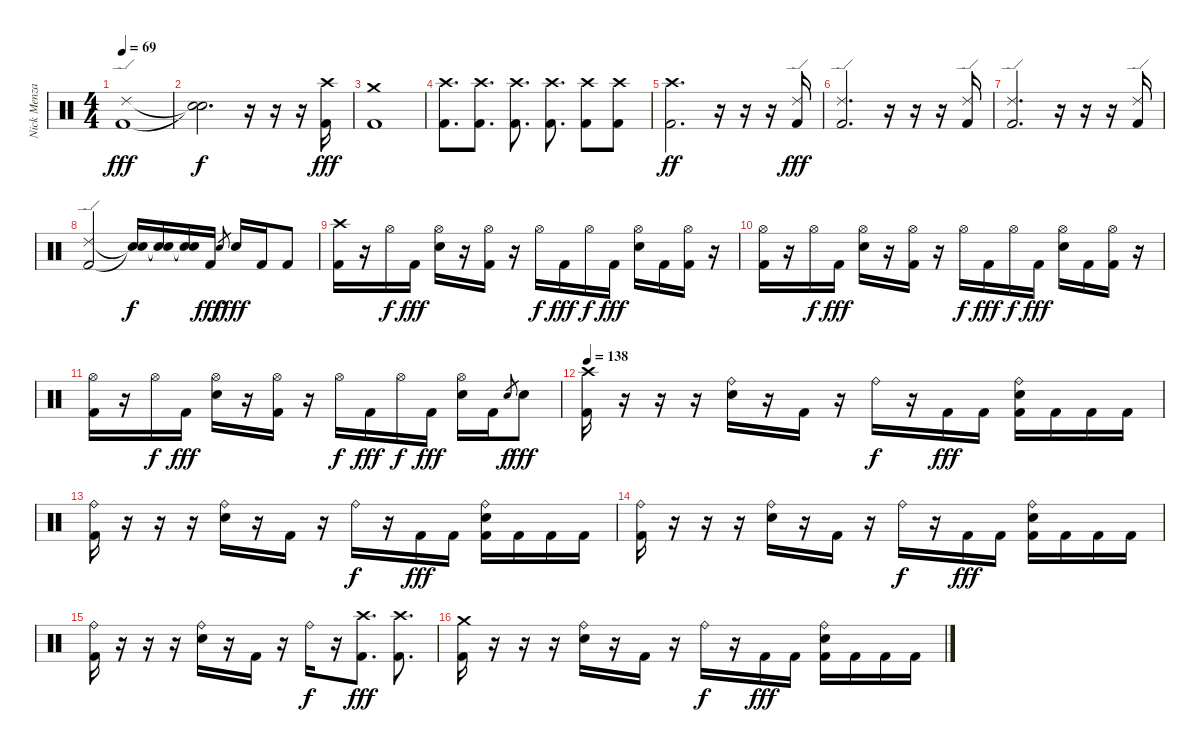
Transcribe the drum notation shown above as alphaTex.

\track ("Nick Menza" "Nick Menza") {instrument percussion}
\staff {score}
\articulation defaults
\ts (4 4)
\tempo 69
\clef neutral
\ks c
("Kick (hit) 2" "Ride (edge) 2").1{dy fff} |
("Snare (hit)"{t} "Snare (hit)"{t}).2{d dy f} r.16 r.16 r.16 ("Kick (hit) 2" "Crash high (hit)").16{dy fff} |
("Kick (hit) 2" "Crash medium (hit)").1 |
("Kick (hit) 2" "Crash high (hit)").8{d} ("Kick (hit) 2" "Crash high (hit)").8{d} ("Kick (hit) 2" "Crash high (hit)").8{d} ("Kick (hit) 2" "Crash high (hit)").8{d} ("Kick (hit) 2" "Crash high (hit)").8 ("Kick (hit) 2" "Crash high (hit)").8 |
("Kick (hit) 2" "Crash high (hit)").2{d dy ff} r.16 r.16 r.16 ("Kick (hit) 2" "Ride (edge) 2").16{dy fff} |
("Kick (hit) 2" "Ride (edge) 2").2{d} r.16 r.16 r.16 ("Kick (hit) 2" "Ride (edge) 2").16 |
("Kick (hit) 2" "Ride (edge) 2").2{d} r.16 r.16 r.16 ("Kick (hit) 2" "Ride (edge) 2").16 |
("Kick (hit) 2" "Ride (edge) 2").2 ("Snare (hit)"{t} "Snare (hit)"{t}).16{dy f} ("Snare (hit)"{t} "Snare (hit)"{t}).16 ("Snare (hit)"{t} "Snare (hit)"{t}).16 "Kick (hit) 2".16{dy fff} "Electric Snare (hit)".8{gr dy f} "Electric Snare (hit)".16{dy fff} "Kick (hit) 2".16 "Kick (hit) 2".8 |
("Kick (hit) 2" "Crash high (hit)").16 r.16 "Hi-Hat (open)".16{dy f} "Kick (hit) 2".16{dy fff} ("Electric Snare (hit)" "Hi-Hat (open)").16 r.16 ("Kick (hit) 2" "Hi-Hat (open)").16 r.16 "Hi-Hat (open)".16{dy f} "Kick (hit) 2".16{dy fff} "Hi-Hat (open)".16{dy f} "Kick (hit) 2".16{dy fff} ("Electric Snare (hit)" "Hi-Hat (open)").16 "Kick (hit) 2".16 ("Kick (hit) 2" "Hi-Hat (open)").16 r.16 |
("Kick (hit) 2" "Hi-Hat (open)").16 r.16 "Hi-Hat (open)".16{dy f} "Kick (hit) 2".16{dy fff} ("Electric Snare (hit)" "Hi-Hat (open)").16 r.16 ("Kick (hit) 2" "Hi-Hat (open)").16 r.16 "Hi-Hat (open)".16{dy f} "Kick (hit) 2".16{dy fff} "Hi-Hat (open)".16{dy f} "Kick (hit) 2".16{dy fff} ("Electric Snare (hit)" "Hi-Hat (open)").16 "Kick (hit) 2".16 ("Kick (hit) 2" "Hi-Hat (open)").16 r.16 |
("Kick (hit) 2" "Hi-Hat (open)").16 r.16 "Hi-Hat (open)".16{dy f} "Kick (hit) 2".16{dy fff} ("Electric Snare (hit)" "Hi-Hat (open)").16 r.16 ("Kick (hit) 2" "Hi-Hat (open)").16 r.16 "Hi-Hat (open)".16{dy f} "Kick (hit) 2".16{dy fff} "Hi-Hat (open)".16{dy f} "Kick (hit) 2".16{dy fff} ("Electric Snare (hit)" "Hi-Hat (open)").16 "Kick (hit) 2".16 "Electric Snare (hit)".8{gr dy f} "Electric Snare (hit)".8{dy fff} |
\tempo 138
("Kick (hit) 2" "Crash high (hit)").16 r.16 r.16 r.16 ("Electric Snare (hit)" "Ride (bell)").16 r.16 "Kick (hit) 2".16 r.16 "Ride (bell)".16{dy f} r.16 "Kick (hit) 2".16{dy fff} "Kick (hit) 2".16 ("Kick (hit) 2" "Electric Snare (hit)" "Ride (bell)").16 "Kick (hit) 2".16 "Kick (hit) 2".16 "Kick (hit) 2".16 |
("Kick (hit) 2" "Ride (bell)").16 r.16 r.16 r.16 ("Electric Snare (hit)" "Ride (bell)").16 r.16 "Kick (hit) 2".16 r.16 "Ride (bell)".16{dy f} r.16 "Kick (hit) 2".16{dy fff} "Kick (hit) 2".16 ("Kick (hit) 2" "Electric Snare (hit)" "Ride (bell)").16 "Kick (hit) 2".16 "Kick (hit) 2".16 "Kick (hit) 2".16 |
("Kick (hit) 2" "Ride (bell)").16 r.16 r.16 r.16 ("Electric Snare (hit)" "Ride (bell)").16 r.16 "Kick (hit) 2".16 r.16 "Ride (bell)".16{dy f} r.16 "Kick (hit) 2".16{dy fff} "Kick (hit) 2".16 ("Kick (hit) 2" "Electric Snare (hit)" "Ride (bell)").16 "Kick (hit) 2".16 "Kick (hit) 2".16 "Kick (hit) 2".16 |
("Kick (hit) 2" "Ride (bell)").16 r.16 r.16 r.16 ("Electric Snare (hit)" "Ride (bell)").16 r.16 "Kick (hit) 2".16 r.16 "Ride (bell)".16{dy f} r.16 ("Kick (hit) 2" "Crash high (hit)").8{d dy fff} ("Kick (hit) 2" "Crash high (hit)").8{d} |
("Kick (hit) 2" "Crash medium (hit)").16 r.16 r.16 r.16 ("Electric Snare (hit)" "Ride (bell)").16 r.16 "Kick (hit) 2".16 r.16 "Ride (bell)".16{dy f} r.16 "Kick (hit) 2".16{dy fff} "Kick (hit) 2".16 ("Kick (hit) 2" "Electric Snare (hit)" "Ride (bell)").16 "Kick (hit) 2".16 "Kick (hit) 2".16 "Kick (hit) 2".16
